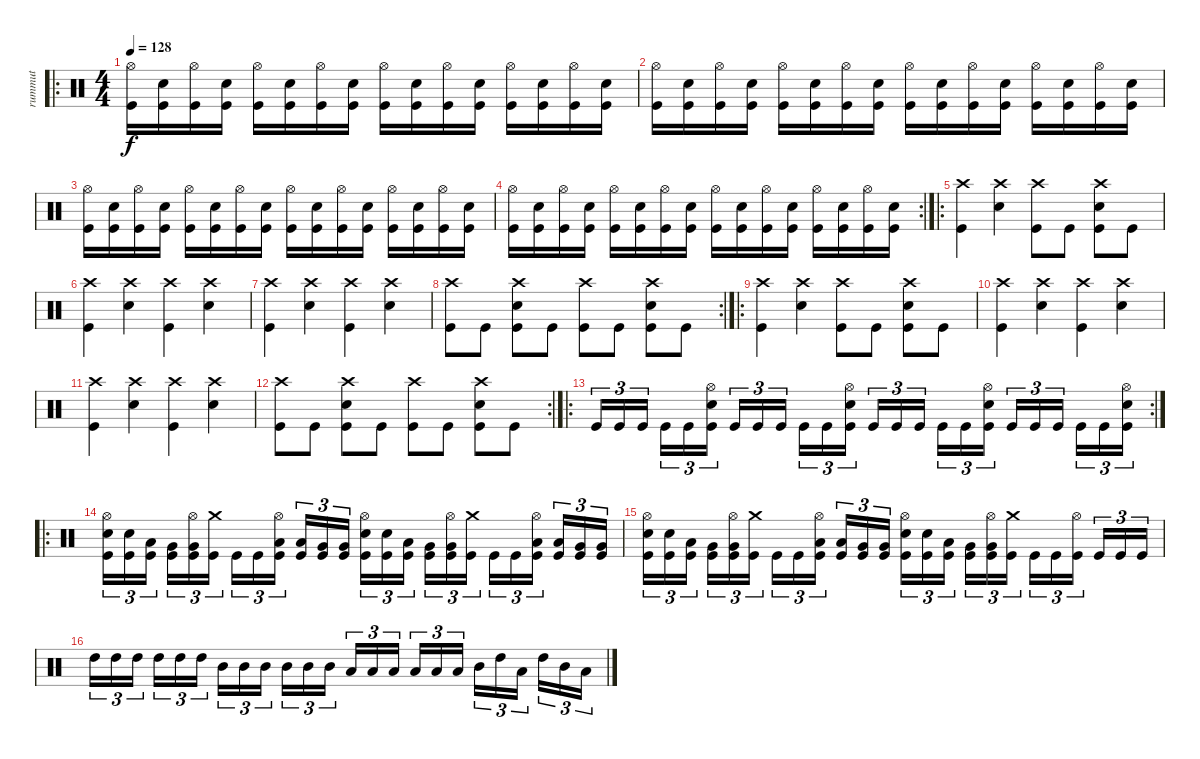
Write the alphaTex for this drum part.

\track ("rummut" "rummut") {instrument percussion}
\staff {score}
\articulation defaults
\ro
\ts (4 4)
\tempo 128
\clef neutral
\ks c
("Hi-Hat (open)" "Kick (hit)").16{dy f} ("Snare (hit) 2" "Kick (hit)").16 ("Hi-Hat (open)" "Kick (hit)").16 ("Snare (hit) 2" "Kick (hit)").16 ("Hi-Hat (open)" "Kick (hit)").16 ("Snare (hit) 2" "Kick (hit)").16 ("Hi-Hat (open)" "Kick (hit)").16 ("Snare (hit) 2" "Kick (hit)").16 ("Hi-Hat (open)" "Kick (hit)").16 ("Snare (hit) 2" "Kick (hit)").16 ("Hi-Hat (open)" "Kick (hit)").16 ("Snare (hit) 2" "Kick (hit)").16 ("Hi-Hat (open)" "Kick (hit)").16 ("Snare (hit) 2" "Kick (hit)").16 ("Hi-Hat (open)" "Kick (hit)").16 ("Snare (hit) 2" "Kick (hit)").16 |
("Hi-Hat (open)" "Kick (hit)").16 ("Snare (hit) 2" "Kick (hit)").16 ("Hi-Hat (open)" "Kick (hit)").16 ("Snare (hit) 2" "Kick (hit)").16 ("Hi-Hat (open)" "Kick (hit)").16 ("Snare (hit) 2" "Kick (hit)").16 ("Hi-Hat (open)" "Kick (hit)").16 ("Snare (hit) 2" "Kick (hit)").16 ("Hi-Hat (open)" "Kick (hit)").16 ("Snare (hit) 2" "Kick (hit)").16 ("Hi-Hat (open)" "Kick (hit)").16 ("Snare (hit) 2" "Kick (hit)").16 ("Hi-Hat (open)" "Kick (hit)").16 ("Snare (hit) 2" "Kick (hit)").16 ("Hi-Hat (open)" "Kick (hit)").16 ("Snare (hit) 2" "Kick (hit)").16 |
("Hi-Hat (open)" "Kick (hit)").16 ("Snare (hit) 2" "Kick (hit)").16 ("Hi-Hat (open)" "Kick (hit)").16 ("Snare (hit) 2" "Kick (hit)").16 ("Hi-Hat (open)" "Kick (hit)").16 ("Snare (hit) 2" "Kick (hit)").16 ("Hi-Hat (open)" "Kick (hit)").16 ("Snare (hit) 2" "Kick (hit)").16 ("Hi-Hat (open)" "Kick (hit)").16 ("Snare (hit) 2" "Kick (hit)").16 ("Hi-Hat (open)" "Kick (hit)").16 ("Snare (hit) 2" "Kick (hit)").16 ("Hi-Hat (open)" "Kick (hit)").16 ("Snare (hit) 2" "Kick (hit)").16 ("Hi-Hat (open)" "Kick (hit)").16 ("Snare (hit) 2" "Kick (hit)").16 |
\rc 2
("Hi-Hat (open)" "Kick (hit)").16 ("Snare (hit) 2" "Kick (hit)").16 ("Hi-Hat (open)" "Kick (hit)").16 ("Snare (hit) 2" "Kick (hit)").16 ("Hi-Hat (open)" "Kick (hit)").16 ("Snare (hit) 2" "Kick (hit)").16 ("Hi-Hat (open)" "Kick (hit)").16 ("Snare (hit) 2" "Kick (hit)").16 ("Hi-Hat (open)" "Kick (hit)").16 ("Snare (hit) 2" "Kick (hit)").16 ("Hi-Hat (open)" "Kick (hit)").16 ("Snare (hit) 2" "Kick (hit)").16 ("Hi-Hat (open)" "Kick (hit)").16 ("Snare (hit) 2" "Kick (hit)").16 ("Hi-Hat (open)" "Kick (hit)").16 ("Snare (hit) 2" "Kick (hit)").16 |
\ro
("Crash high (hit)" "Kick (hit)").4 ("Crash high (hit)" "Snare (hit) 2").4 ("Crash high (hit)" "Kick (hit)").8 "Kick (hit)".8 ("Crash high (hit)" "Snare (hit) 2" "Kick (hit)").8 "Kick (hit)".8 |
("Crash high (hit)" "Kick (hit)").4 ("Crash high (hit)" "Snare (hit) 2").4 ("Crash high (hit)" "Kick (hit)").4 ("Crash high (hit)" "Snare (hit) 2").4 |
("Crash high (hit)" "Kick (hit)").4 ("Crash high (hit)" "Snare (hit) 2").4 ("Crash high (hit)" "Kick (hit)").4 ("Crash high (hit)" "Snare (hit) 2").4 |
\rc 2
("Crash high (hit)" "Kick (hit)").8 "Kick (hit)".8 ("Crash high (hit)" "Snare (hit) 2" "Kick (hit)").8 "Kick (hit)".8 ("Crash high (hit)" "Kick (hit)").8 "Kick (hit)".8 ("Crash high (hit)" "Snare (hit) 2" "Kick (hit)").8 "Kick (hit)".8 |
\ro
("Crash high (hit)" "Kick (hit)").4 ("Crash high (hit)" "Snare (hit) 2").4 ("Crash high (hit)" "Kick (hit)").8 "Kick (hit)".8 ("Crash high (hit)" "Snare (hit) 2" "Kick (hit)").8 "Kick (hit)".8 |
("Crash high (hit)" "Kick (hit)").4 ("Crash high (hit)" "Snare (hit) 2").4 ("Crash high (hit)" "Kick (hit)").4 ("Crash high (hit)" "Snare (hit) 2").4 |
("Crash high (hit)" "Kick (hit)").4 ("Crash high (hit)" "Snare (hit) 2").4 ("Crash high (hit)" "Kick (hit)").4 ("Crash high (hit)" "Snare (hit) 2").4 |
\rc 2
("Crash high (hit)" "Kick (hit)").8 "Kick (hit)".8 ("Crash high (hit)" "Snare (hit) 2" "Kick (hit)").8 "Kick (hit)".8 ("Crash high (hit)" "Kick (hit)").8 "Kick (hit)".8 ("Crash high (hit)" "Snare (hit) 2" "Kick (hit)").8 "Kick (hit)".8 |
\ro
\rc 2 "Kick (hit)".16{tu (3 2)} "Kick (hit)".16{tu (3 2)} "Kick (hit)".16{tu (3 2)} "Kick (hit)".16{tu (3 2)} "Kick (hit)".16{tu (3 2)}
("Hi-Hat (open)" "Snare (hit) 2" "Kick (hit)").16{tu (3 2)} "Kick (hit)".16{tu (3 2)} "Kick (hit)".16{tu (3 2)} "Kick (hit)".16{tu (3 2)} "Kick (hit)".16{tu (3 2)} "Kick (hit)".16{tu (3 2)} ("Hi-Hat (open)" "Snare (hit) 2" "Kick (hit)").16{tu (3 2)} "Kick (hit)".16{tu (3 2)} "Kick (hit)".16{tu (3 2)} "Kick (hit)".16{tu (3 2)} "Kick (hit)".16{tu (3 2)} "Kick (hit)".16{tu (3 2)} ("Hi-Hat (open)" "Snare (hit) 2" "Kick (hit)").16{tu (3 2)} "Kick (hit)".16{tu (3 2)} "Kick (hit)".16{tu (3 2)} "Kick (hit)".16{tu (3 2)} "Kick (hit)".16{tu (3 2)} "Kick (hit)".16{tu (3 2)} ("Hi-Hat (open)" "Snare (hit) 2" "Kick (hit)").16{tu (3 2)} |
\ro
("Hi-Hat (open)" "Snare (hit) 2" "Kick (hit)").16{tu (3 2)} ("Snare (hit) 2" "Kick (hit)").16{tu (3 2)} ("Low Floor Tom (hit)" "Kick (hit)").16{tu (3 2)} ("Very Low Tom (hit)" "Kick (hit)").16{tu (3 2)} ("Hi-Hat (open)" "Very Low Tom (hit)" "Kick (hit)").16{tu (3 2)} ("Crash medium (hit)" "Kick (hit)").16{tu (3 2)} "Kick (hit)".16{tu (3 2)} "Kick (hit)".16{tu (3 2)} ("Low Tom (hit)" "Hi-Hat (open)" "Kick (hit)").16{tu (3 2)} ("Low Tom (hit)" "Kick (hit)").16{tu (3 2)} ("Very Low Tom (hit)" "Kick (hit)").16{tu (3 2)} ("Very Low Tom (hit)" "Kick (hit)").16{tu (3 2)} ("Hi-Hat (open)" "Snare (hit) 2" "Kick (hit)").16{tu (3 2)} ("Snare (hit) 2" "Kick (hit)").16{tu (3 2)} ("Low Floor Tom (hit)" "Kick (hit)").16{tu (3 2)} ("Very Low Tom (hit)" "Kick (hit)").16{tu (3 2)} ("Hi-Hat (open)" "Very Low Tom (hit)" "Kick (hit)").16{tu (3 2)} ("Crash medium (hit)" "Kick (hit)").16{tu (3 2)} "Kick (hit)".16{tu (3 2)} "Kick (hit)".16{tu (3 2)} ("Low Tom (hit)" "Hi-Hat (open)" "Kick (hit)").16{tu (3 2)} ("Low Tom (hit)" "Kick (hit)").16{tu (3 2)} ("Very Low Tom (hit)" "Kick (hit)").16{tu (3 2)} ("Very Low Tom (hit)" "Kick (hit)").16{tu (3 2)} |
("Hi-Hat (open)" "Snare (hit) 2" "Kick (hit)").16{tu (3 2)} ("Snare (hit) 2" "Kick (hit)").16{tu (3 2)} ("Low Floor Tom (hit)" "Kick (hit)").16{tu (3 2)} ("Very Low Tom (hit)" "Kick (hit)").16{tu (3 2)} ("Hi-Hat (open)" "Very Low Tom (hit)" "Kick (hit)").16{tu (3 2)} ("Crash medium (hit)" "Kick (hit)").16{tu (3 2)} "Kick (hit)".16{tu (3 2)} "Kick (hit)".16{tu (3 2)} ("Low Tom (hit)" "Hi-Hat (open)" "Kick (hit)").16{tu (3 2)} ("Low Tom (hit)" "Kick (hit)").16{tu (3 2)} ("Very Low Tom (hit)" "Kick (hit)").16{tu (3 2)} ("Very Low Tom (hit)" "Kick (hit)").16{tu (3 2)} ("Hi-Hat (open)" "Snare (hit) 2" "Kick (hit)").16{tu (3 2)} ("Snare (hit) 2" "Kick (hit)").16{tu (3 2)} ("Low Floor Tom (hit)" "Kick (hit)").16{tu (3 2)} ("Very Low Tom (hit)" "Kick (hit)").16{tu (3 2)} ("Hi-Hat (open)" "Very Low Tom (hit)" "Kick (hit)").16{tu (3 2)} ("Crash medium (hit)" "Kick (hit)").16{tu (3 2)} "Kick (hit)".16{tu (3 2)} "Kick (hit)".16{tu (3 2)} ("Hi-Hat (open)" "Kick (hit)").16{tu (3 2)} "Kick (hit)".16{tu (3 2)} "Kick (hit)".16{tu (3 2)} "Kick (hit)".16{tu (3 2)} |
"High Tom (hit)".16{tu (3 2)} "High Tom (hit)".16{tu (3 2)} "High Tom (hit)".16{tu (3 2)} "High Tom (hit)".16{tu (3 2)} "High Tom (hit)".16{tu (3 2)} "High Tom (hit)".16{tu (3 2)} "Mid Tom (hit)".16{tu (3 2)} "Mid Tom (hit)".16{tu (3 2)} "Mid Tom (hit)".16{tu (3 2)} "Mid Tom (hit)".16{tu (3 2)} "Mid Tom (hit)".16{tu (3 2)} "Mid Tom (hit)".16{tu (3 2)} "Low Tom (hit)".16{tu (3 2)} "Low Tom (hit)".16{tu (3 2)} "Low Tom (hit)".16{tu (3 2)} "Low Tom (hit)".16{tu (3 2)} "Low Tom (hit)".16{tu (3 2)} "Low Tom (hit)".16{tu (3 2)} "Mid Tom (hit)".16{tu (3 2)} "High Tom (hit)".16{tu (3 2)} "Low Tom (hit)".16{tu (3 2)} "High Tom (hit)".16{tu (3 2)} "Mid Tom (hit)".16{tu (3 2)} "Low Tom (hit)".16{tu (3 2)}
